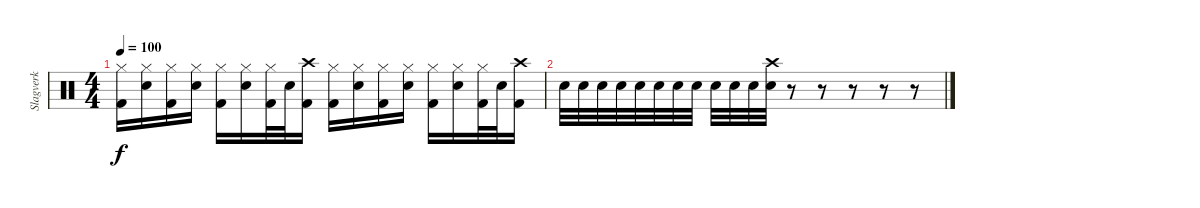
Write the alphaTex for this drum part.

\track ("Slagverk" "Slagverk") {instrument percussion}
\staff {score}
\articulation defaults
\ts (4 4)
\tempo 100
\clef neutral
\ks c
("Kick (hit) 2" "Hi-Hat (closed)").16{dy f} ("Snare (hit) 2" "Hi-Hat (closed)").16 ("Kick (hit) 2" "Hi-Hat (closed)").16 ("Snare (hit) 2" "Hi-Hat (closed)").16 ("Kick (hit) 2" "Hi-Hat (closed)").16 ("Snare (hit) 2" "Hi-Hat (closed)").16 ("Kick (hit) 2" "Hi-Hat (closed)").32 "Snare (hit) 2".32 ("Kick (hit) 2" "Crash high (hit)").16 ("Kick (hit) 2" "Hi-Hat (closed)").16 ("Snare (hit) 2" "Hi-Hat (closed)").16 ("Kick (hit) 2" "Hi-Hat (closed)").16 ("Snare (hit) 2" "Hi-Hat (closed)").16 ("Kick (hit) 2" "Hi-Hat (closed)").16 ("Snare (hit) 2" "Hi-Hat (closed)").16 ("Kick (hit) 2" "Hi-Hat (closed)").32 "Snare (hit) 2".32 ("Kick (hit) 2" "Crash high (hit)").16 |
"Snare (hit) 2".32 "Snare (hit) 2".32 "Snare (hit) 2".32 "Snare (hit) 2".32 "Snare (hit) 2".32 "Snare (hit) 2".32 "Snare (hit) 2".32 "Snare (hit) 2".32 "Snare (hit) 2".32 "Snare (hit) 2".32 "Snare (hit) 2".32 ("Snare (hit) 2" "Crash high (hit)").32 r.8 r.8 r.8 r.8 r.8
